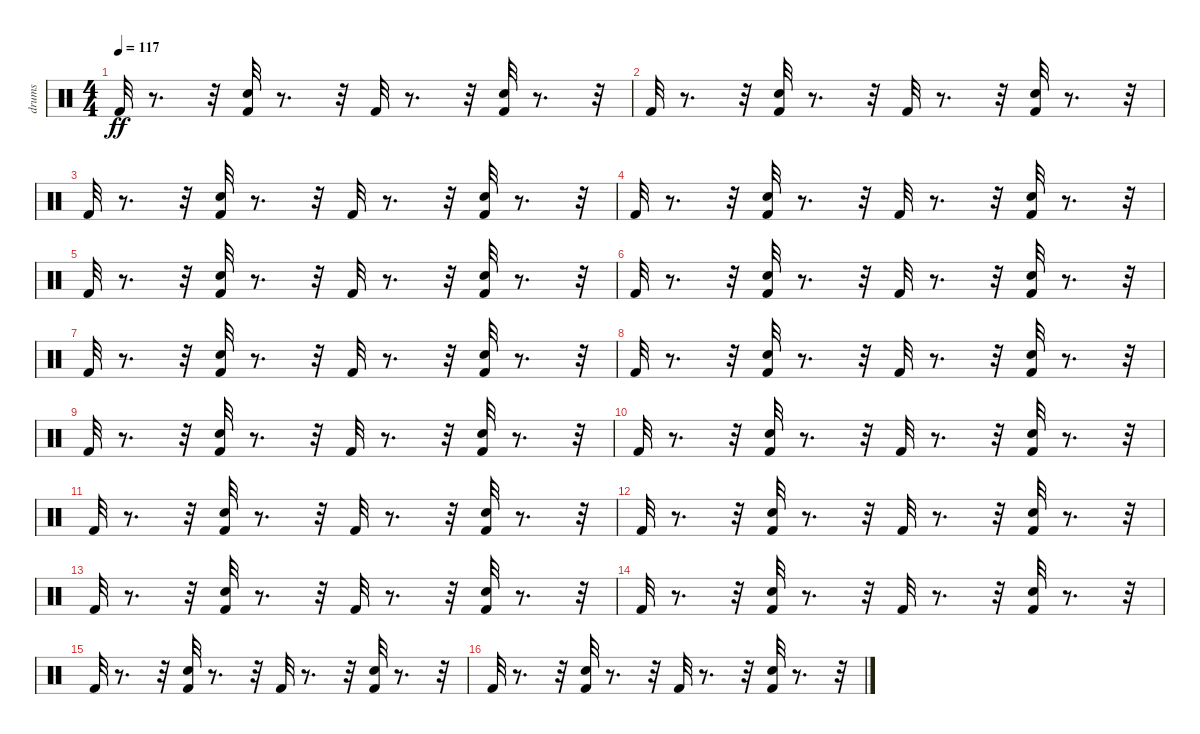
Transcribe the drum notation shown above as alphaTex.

\track ("drums   " "drums   ") {instrument percussion}
\staff {score}
\articulation defaults
\ts (4 4)
\tempo 117
\clef neutral
\ks c "Kick (hit) 2".32{dy ff}
r.8{d} r.32 ("Kick (hit) 2" "Snare (hit) 2").32 r.8{d} r.32 "Kick (hit) 2".32 r.8{d} r.32 ("Kick (hit) 2" "Snare (hit) 2").32 r.8{d} r.32 |
"Kick (hit) 2".32 r.8{d} r.32 ("Kick (hit) 2" "Snare (hit) 2").32 r.8{d} r.32 "Kick (hit) 2".32 r.8{d} r.32 ("Kick (hit) 2" "Snare (hit) 2").32 r.8{d} r.32 |
"Kick (hit) 2".32 r.8{d} r.32 ("Kick (hit) 2" "Snare (hit) 2").32 r.8{d} r.32 "Kick (hit) 2".32 r.8{d} r.32 ("Kick (hit) 2" "Snare (hit) 2").32 r.8{d} r.32 |
"Kick (hit) 2".32 r.8{d} r.32 ("Kick (hit) 2" "Snare (hit) 2").32 r.8{d} r.32 "Kick (hit) 2".32 r.8{d} r.32 ("Kick (hit) 2" "Snare (hit) 2").32 r.8{d} r.32 |
"Kick (hit) 2".32 r.8{d} r.32 ("Kick (hit) 2" "Snare (hit) 2").32 r.8{d} r.32 "Kick (hit) 2".32 r.8{d} r.32 ("Kick (hit) 2" "Snare (hit) 2").32 r.8{d} r.32 |
"Kick (hit) 2".32 r.8{d} r.32 ("Kick (hit) 2" "Snare (hit) 2").32 r.8{d} r.32 "Kick (hit) 2".32 r.8{d} r.32 ("Kick (hit) 2" "Snare (hit) 2").32 r.8{d} r.32 |
"Kick (hit) 2".32 r.8{d} r.32 ("Kick (hit) 2" "Snare (hit) 2").32 r.8{d} r.32 "Kick (hit) 2".32 r.8{d} r.32 ("Kick (hit) 2" "Snare (hit) 2").32 r.8{d} r.32 |
"Kick (hit) 2".32 r.8{d} r.32 ("Kick (hit) 2" "Snare (hit) 2").32 r.8{d} r.32 "Kick (hit) 2".32 r.8{d} r.32 ("Kick (hit) 2" "Snare (hit) 2").32 r.8{d} r.32 |
"Kick (hit) 2".32 r.8{d} r.32 ("Kick (hit) 2" "Snare (hit) 2").32 r.8{d} r.32 "Kick (hit) 2".32 r.8{d} r.32 ("Kick (hit) 2" "Snare (hit) 2").32 r.8{d} r.32 |
"Kick (hit) 2".32 r.8{d} r.32 ("Kick (hit) 2" "Snare (hit) 2").32 r.8{d} r.32 "Kick (hit) 2".32 r.8{d} r.32 ("Kick (hit) 2" "Snare (hit) 2").32 r.8{d} r.32 |
"Kick (hit) 2".32 r.8{d} r.32 ("Kick (hit) 2" "Snare (hit) 2").32 r.8{d} r.32 "Kick (hit) 2".32 r.8{d} r.32 ("Kick (hit) 2" "Snare (hit) 2").32 r.8{d} r.32 |
"Kick (hit) 2".32 r.8{d} r.32 ("Kick (hit) 2" "Snare (hit) 2").32 r.8{d} r.32 "Kick (hit) 2".32 r.8{d} r.32 ("Kick (hit) 2" "Snare (hit) 2").32 r.8{d} r.32 |
"Kick (hit) 2".32 r.8{d} r.32 ("Snare (hit) 2" "Kick (hit) 2").32 r.8{d} r.32 "Kick (hit) 2".32 r.8{d} r.32 ("Kick (hit) 2" "Snare (hit) 2").32 r.8{d} r.32 |
"Kick (hit) 2".32 r.8{d} r.32 ("Kick (hit) 2" "Snare (hit) 2").32 r.8{d} r.32 "Kick (hit) 2".32 r.8{d} r.32 ("Snare (hit) 2" "Kick (hit) 2").32 r.8{d} r.32 |
"Kick (hit) 2".32 r.8{d} r.32 ("Kick (hit) 2" "Snare (hit) 2").32 r.8{d} r.32 "Kick (hit) 2".32 r.8{d} r.32 ("Kick (hit) 2" "Snare (hit) 2").32 r.8{d} r.32 |
"Kick (hit) 2".32 r.8{d} r.32 ("Kick (hit) 2" "Snare (hit) 2").32 r.8{d} r.32 "Kick (hit) 2".32 r.8{d} r.32 ("Kick (hit) 2" "Snare (hit) 2").32 r.8{d} r.32
